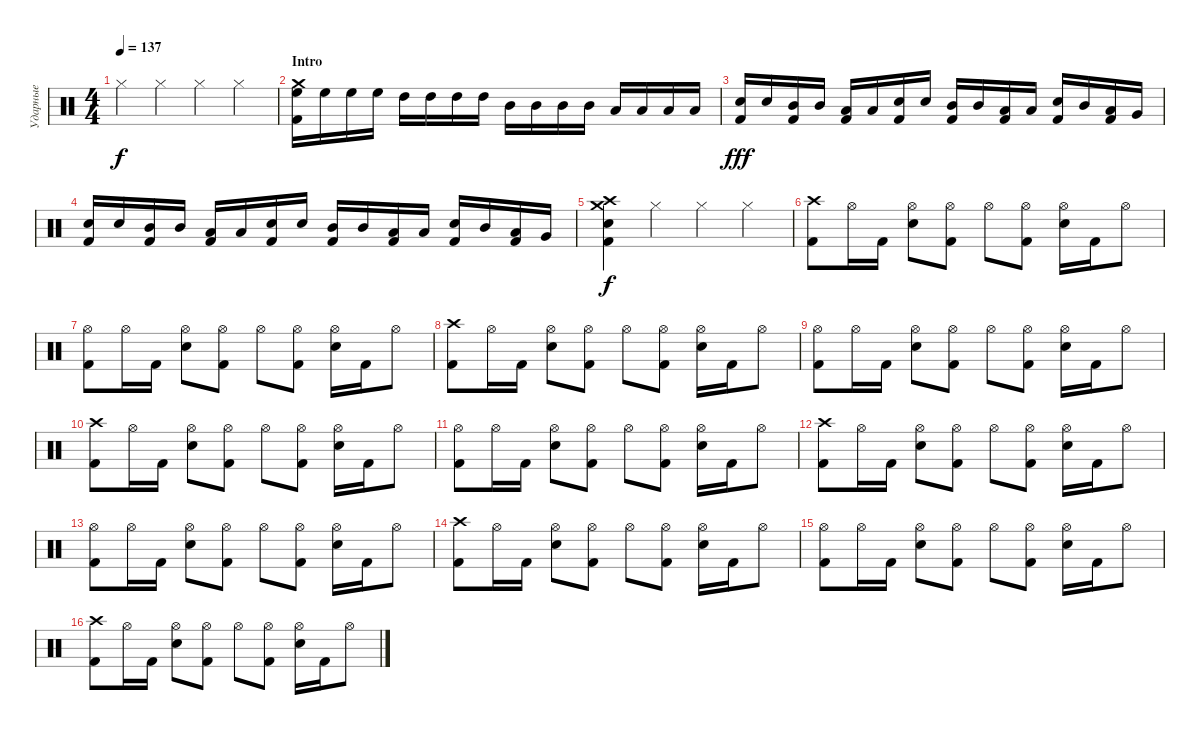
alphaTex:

\track ("Ударные" "Ударные") {instrument percussion}
\staff {score}
\articulation defaults
\ts (4 4)
\tempo 137
\clef neutral
\ks c "Hi-Hat (closed)".4{dy f} "Hi-Hat (closed)".4 "Hi-Hat (closed)".4 "Hi-Hat (closed)".4
|
\section ("" "Intro")
("High Floor Tom (hit)" "Crash medium (hit)" "Kick (hit) 2").16 "High Floor Tom (hit)".16 "High Floor Tom (hit)".16 "High Floor Tom (hit)".16 "High Tom (hit)".16 "High Tom (hit)".16 "High Tom (hit)".16 "High Tom (hit)".16 "Mid Tom (hit)".16 "Mid Tom (hit)".16 "Mid Tom (hit)".16 "Mid Tom (hit)".16 "Low Tom (hit)".16 "Low Tom (hit)".16 "Low Tom (hit)".16 "Low Tom (hit)".16 |
("Snare (hit) 2" "Kick (hit) 2").16{dy fff} "Snare (hit) 2".16 ("Mid Tom (hit)" "Kick (hit) 2").16 "Mid Tom (hit)".16 ("Low Tom (hit)" "Kick (hit) 2").16 "Low Tom (hit)".16 ("Snare (hit) 2" "Kick (hit) 2").16 "Snare (hit) 2".16 ("Mid Tom (hit)" "Kick (hit) 2").16 "Mid Tom (hit)".16 ("Low Tom (hit)" "Kick (hit) 2").16 "Low Tom (hit)".16 ("Snare (hit) 2" "Kick (hit) 2").16 "Mid Tom (hit)".16 ("Low Tom (hit)" "Kick (hit) 2").16 "Very Low Tom (hit)".16 |
("Snare (hit) 2" "Kick (hit) 2").16 "Snare (hit) 2".16 ("Mid Tom (hit)" "Kick (hit) 2").16 "Mid Tom (hit)".16 ("Low Tom (hit)" "Kick (hit) 2").16 "Low Tom (hit)".16 ("Snare (hit) 2" "Kick (hit) 2").16 "Snare (hit) 2".16 ("Mid Tom (hit)" "Kick (hit) 2").16 "Mid Tom (hit)".16 ("Low Tom (hit)" "Kick (hit) 2").16 "Low Tom (hit)".16 ("Snare (hit) 2" "Kick (hit) 2").16 "Mid Tom (hit)".16 ("Low Tom (hit)" "Kick (hit) 2").16 "Very Low Tom (hit)".16 |
("Crash medium (hit)" "Crash high (hit)" "Electric Snare (hit)" "Kick (hit) 2").4{dy f} "Hi-Hat (closed)".4 "Hi-Hat (closed)".4 "Hi-Hat (closed)".4 |
("Crash high (hit)" "Kick (hit) 2").8 "Hi-Hat (open)".16 "Kick (hit) 2".16 ("Hi-Hat (open)" "Electric Snare (hit)").8 ("Hi-Hat (open)" "Kick (hit) 2").8 "Hi-Hat (open)".8 ("Hi-Hat (open)" "Kick (hit) 2").8 ("Hi-Hat (open)" "Electric Snare (hit)").16 "Kick (hit) 2".16 "Hi-Hat (open)".8 |
("Hi-Hat (open)" "Kick (hit) 2").8 "Hi-Hat (open)".16 "Kick (hit) 2".16 ("Hi-Hat (open)" "Electric Snare (hit)").8 ("Hi-Hat (open)" "Kick (hit) 2").8 "Hi-Hat (open)".8 ("Hi-Hat (open)" "Kick (hit) 2").8 ("Hi-Hat (open)" "Electric Snare (hit)").16 "Kick (hit) 2".16 "Hi-Hat (open)".8 |
("Crash high (hit)" "Kick (hit) 2").8 "Hi-Hat (open)".16 "Kick (hit) 2".16 ("Hi-Hat (open)" "Electric Snare (hit)").8 ("Hi-Hat (open)" "Kick (hit) 2").8 "Hi-Hat (open)".8 ("Hi-Hat (open)" "Kick (hit) 2").8 ("Hi-Hat (open)" "Electric Snare (hit)").16 "Kick (hit) 2".16 "Hi-Hat (open)".8 |
("Hi-Hat (open)" "Kick (hit) 2").8 "Hi-Hat (open)".16 "Kick (hit) 2".16 ("Hi-Hat (open)" "Electric Snare (hit)").8 ("Hi-Hat (open)" "Kick (hit) 2").8 "Hi-Hat (open)".8 ("Hi-Hat (open)" "Kick (hit) 2").8 ("Hi-Hat (open)" "Electric Snare (hit)").16 "Kick (hit) 2".16 "Hi-Hat (open)".8 |
("Crash high (hit)" "Kick (hit) 2").8 "Hi-Hat (open)".16 "Kick (hit) 2".16 ("Hi-Hat (open)" "Electric Snare (hit)").8 ("Hi-Hat (open)" "Kick (hit) 2").8 "Hi-Hat (open)".8 ("Hi-Hat (open)" "Kick (hit) 2").8 ("Hi-Hat (open)" "Electric Snare (hit)").16 "Kick (hit) 2".16 "Hi-Hat (open)".8 |
("Hi-Hat (open)" "Kick (hit) 2").8 "Hi-Hat (open)".16 "Kick (hit) 2".16 ("Hi-Hat (open)" "Electric Snare (hit)").8 ("Hi-Hat (open)" "Kick (hit) 2").8 "Hi-Hat (open)".8 ("Hi-Hat (open)" "Kick (hit) 2").8 ("Hi-Hat (open)" "Electric Snare (hit)").16 "Kick (hit) 2".16 "Hi-Hat (open)".8 |
("Crash high (hit)" "Kick (hit) 2").8 "Hi-Hat (open)".16 "Kick (hit) 2".16 ("Hi-Hat (open)" "Electric Snare (hit)").8 ("Hi-Hat (open)" "Kick (hit) 2").8 "Hi-Hat (open)".8 ("Hi-Hat (open)" "Kick (hit) 2").8 ("Hi-Hat (open)" "Electric Snare (hit)").16 "Kick (hit) 2".16 "Hi-Hat (open)".8 |
("Hi-Hat (open)" "Kick (hit) 2").8 "Hi-Hat (open)".16 "Kick (hit) 2".16 ("Hi-Hat (open)" "Electric Snare (hit)").8 ("Hi-Hat (open)" "Kick (hit) 2").8 "Hi-Hat (open)".8 ("Hi-Hat (open)" "Kick (hit) 2").8 ("Hi-Hat (open)" "Electric Snare (hit)").16 "Kick (hit) 2".16 "Hi-Hat (open)".8 |
("Crash high (hit)" "Kick (hit) 2").8 "Hi-Hat (open)".16 "Kick (hit) 2".16 ("Hi-Hat (open)" "Electric Snare (hit)").8 ("Hi-Hat (open)" "Kick (hit) 2").8 "Hi-Hat (open)".8 ("Hi-Hat (open)" "Kick (hit) 2").8 ("Hi-Hat (open)" "Electric Snare (hit)").16 "Kick (hit) 2".16 "Hi-Hat (open)".8 |
("Hi-Hat (open)" "Kick (hit) 2").8 "Hi-Hat (open)".16 "Kick (hit) 2".16 ("Hi-Hat (open)" "Electric Snare (hit)").8 ("Hi-Hat (open)" "Kick (hit) 2").8 "Hi-Hat (open)".8 ("Hi-Hat (open)" "Kick (hit) 2").8 ("Hi-Hat (open)" "Electric Snare (hit)").16 "Kick (hit) 2".16 "Hi-Hat (open)".8 |
("Crash high (hit)" "Kick (hit) 2").8 "Hi-Hat (open)".16 "Kick (hit) 2".16 ("Hi-Hat (open)" "Electric Snare (hit)").8 ("Hi-Hat (open)" "Kick (hit) 2").8 "Hi-Hat (open)".8 ("Hi-Hat (open)" "Kick (hit) 2").8 ("Hi-Hat (open)" "Electric Snare (hit)").16 "Kick (hit) 2".16 "Hi-Hat (open)".8
